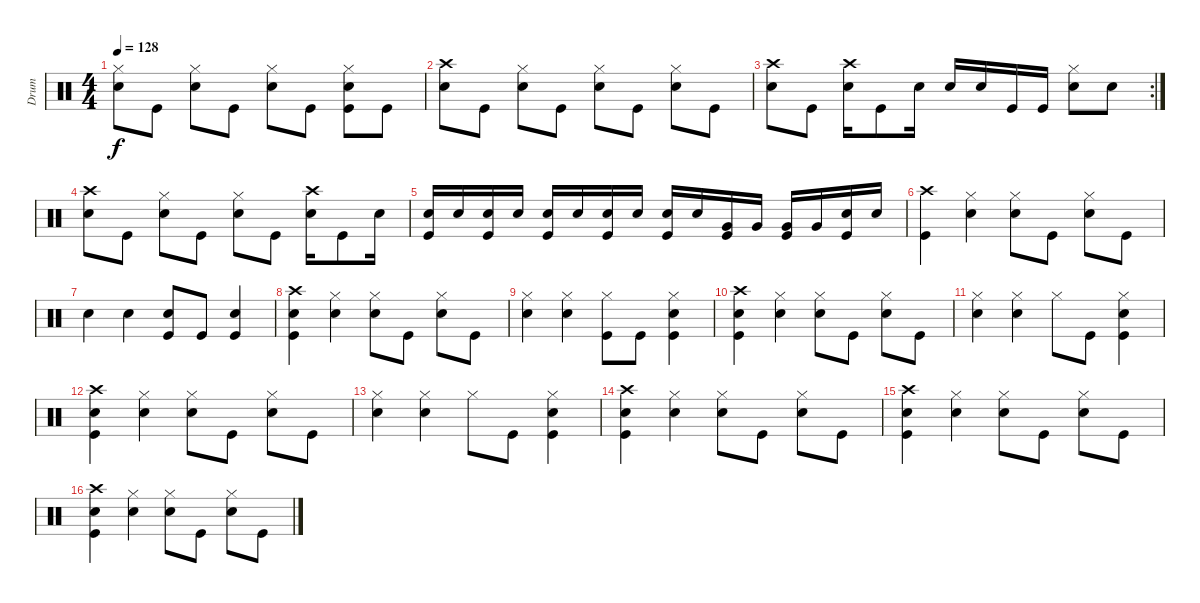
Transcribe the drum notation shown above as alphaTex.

\track ("Drum" "Drum") {instrument percussion}
\staff {score}
\articulation defaults
\ts (4 4)
\tempo 128
\clef neutral
\ks c
("Hi-Hat (closed)" "Snare (hit) 2").8{dy f} "Kick (hit)".8 ("Hi-Hat (closed)" "Snare (hit) 2").8 "Kick (hit)".8 ("Hi-Hat (closed)" "Snare (hit) 2").8 "Kick (hit)".8 ("Hi-Hat (closed)" "Snare (hit) 2" "Kick (hit)").8 "Kick (hit)".8 |
("Crash high (hit)" "Snare (hit) 2").8 "Kick (hit)".8 ("Hi-Hat (closed)" "Snare (hit) 2").8 "Kick (hit)".8 ("Hi-Hat (closed)" "Snare (hit) 2").8 "Kick (hit)".8 ("Hi-Hat (closed)" "Snare (hit) 2").8 "Kick (hit)".8 |
\rc 2
("Crash high (hit)" "Snare (hit) 2").8 "Kick (hit)".8 ("Crash high (hit)" "Snare (hit) 2").16 "Kick (hit)".8 "Snare (hit) 2".16 "Snare (hit) 2".16 "Snare (hit) 2".16 "Kick (hit)".16 "Kick (hit)".16 ("Hi-Hat (closed)" "Snare (hit) 2").8 "Snare (hit) 2".8 |
("Crash high (hit)" "Snare (hit) 2").8 "Kick (hit)".8 ("Hi-Hat (closed)" "Snare (hit) 2").8 "Kick (hit)".8 ("Hi-Hat (closed)" "Snare (hit) 2").8 "Kick (hit)".8 ("Crash high (hit)" "Snare (hit) 2").16 "Kick (hit)".8 "Snare (hit) 2".16 |
("Snare (hit) 2" "Kick (hit)").16 "Snare (hit) 2".16 ("Snare (hit) 2" "Kick (hit)").16 "Snare (hit) 2".16 ("Snare (hit) 2" "Kick (hit)").16 "Snare (hit) 2".16 ("Snare (hit) 2" "Kick (hit)").16 "Snare (hit) 2".16 ("Snare (hit) 2" "Kick (hit)").16 "Snare (hit) 2".16 ("Very Low Tom (hit)" "Kick (hit)").16 "Very Low Tom (hit)".16 ("Very Low Tom (hit)" "Kick (hit)").16 "Very Low Tom (hit)".16 ("Snare (hit) 2" "Kick (hit)").16 "Snare (hit) 2".16 |
("Crash high (hit)" "Kick (hit)").4 ("Hi-Hat (closed)" "Snare (hit) 2").4 ("Hi-Hat (closed)" "Snare (hit) 2").8 "Kick (hit)".8 ("Hi-Hat (closed)" "Snare (hit) 2").8 "Kick (hit)".8 |
"Snare (hit) 2".4 "Snare (hit) 2".4 ("Snare (hit) 2" "Kick (hit)").8 "Kick (hit)".8 ("Snare (hit) 2" "Kick (hit)").4 |
("Crash high (hit)" "Snare (hit) 2" "Kick (hit)").4 ("Hi-Hat (closed)" "Snare (hit) 2").4 ("Hi-Hat (closed)" "Snare (hit) 2").8 "Kick (hit)".8 ("Hi-Hat (closed)" "Snare (hit) 2").8 "Kick (hit)".8 |
("Hi-Hat (closed)" "Snare (hit) 2").4 ("Hi-Hat (closed)" "Snare (hit) 2").4 ("Hi-Hat (closed)" "Kick (hit)").8 "Kick (hit)".8 ("Hi-Hat (closed)" "Snare (hit) 2" "Kick (hit)").4 |
("Crash high (hit)" "Snare (hit) 2" "Kick (hit)").4 ("Hi-Hat (closed)" "Snare (hit) 2").4 ("Hi-Hat (closed)" "Snare (hit) 2").8 "Kick (hit)".8 ("Hi-Hat (closed)" "Snare (hit) 2").8 "Kick (hit)".8 |
("Hi-Hat (closed)" "Snare (hit) 2").4 ("Hi-Hat (closed)" "Snare (hit) 2").4 "Hi-Hat (closed)".8 "Kick (hit)".8 ("Hi-Hat (closed)" "Snare (hit) 2" "Kick (hit)").4 |
("Crash high (hit)" "Snare (hit) 2" "Kick (hit)").4 ("Hi-Hat (closed)" "Snare (hit) 2").4 ("Hi-Hat (closed)" "Snare (hit) 2").8 "Kick (hit)".8 ("Hi-Hat (closed)" "Snare (hit) 2").8 "Kick (hit)".8 |
("Hi-Hat (closed)" "Snare (hit) 2").4 ("Hi-Hat (closed)" "Snare (hit) 2").4 "Hi-Hat (closed)".8 "Kick (hit)".8 ("Hi-Hat (closed)" "Snare (hit) 2" "Kick (hit)").4 |
("Crash high (hit)" "Snare (hit) 2" "Kick (hit)").4 ("Hi-Hat (closed)" "Snare (hit) 2").4 ("Hi-Hat (closed)" "Snare (hit) 2").8 "Kick (hit)".8 ("Hi-Hat (closed)" "Snare (hit) 2").8 "Kick (hit)".8 |
("Crash high (hit)" "Snare (hit) 2" "Kick (hit)").4 ("Hi-Hat (closed)" "Snare (hit) 2").4 ("Hi-Hat (closed)" "Snare (hit) 2").8 "Kick (hit)".8 ("Hi-Hat (closed)" "Snare (hit) 2").8 "Kick (hit)".8 |
("Crash high (hit)" "Snare (hit) 2" "Kick (hit)").4 ("Hi-Hat (closed)" "Snare (hit) 2").4 ("Hi-Hat (closed)" "Snare (hit) 2").8 "Kick (hit)".8 ("Hi-Hat (closed)" "Snare (hit) 2").8 "Kick (hit)".8
